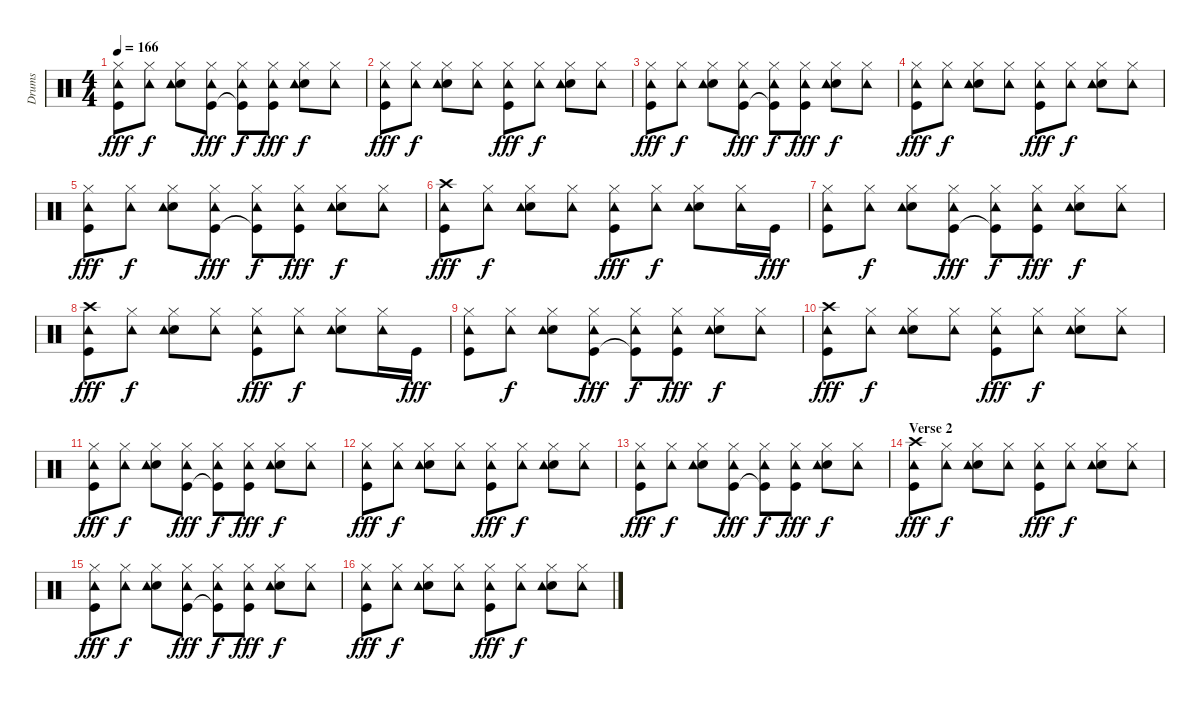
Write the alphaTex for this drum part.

\track ("Drums" "Drums") {instrument percussion}
\staff {score}
\articulation defaults
\ts (4 4)
\tempo 166
\clef neutral
\ks c
("Hi-Hat (closed)" "Tambourine (hit)" "Kick (hit)").8{dy fff} ("Hi-Hat (closed)" "Tambourine (hit)").8{dy f} ("Hi-Hat (closed)" "Snare (hit) 2" "Tambourine (hit)").8 ("Hi-Hat (closed)" "Tambourine (hit)" "Kick (hit)").8{dy fff} ("Hi-Hat (closed)" "Tambourine (hit)" "Kick (hit)"{t}).8{dy f} ("Hi-Hat (closed)" "Tambourine (hit)" "Kick (hit)").8{dy fff} ("Hi-Hat (closed)" "Snare (hit) 2" "Tambourine (hit)").8{dy f} ("Hi-Hat (closed)" "Tambourine (hit)").8 |
("Hi-Hat (closed)" "Tambourine (hit)" "Kick (hit)").8{dy fff} ("Hi-Hat (closed)" "Tambourine (hit)").8{dy f} ("Hi-Hat (closed)" "Snare (hit) 2" "Tambourine (hit)").8 ("Hi-Hat (closed)" "Tambourine (hit)").8 ("Hi-Hat (closed)" "Tambourine (hit)" "Kick (hit)").8{dy fff} ("Hi-Hat (closed)" "Tambourine (hit)").8{dy f} ("Hi-Hat (closed)" "Snare (hit) 2" "Tambourine (hit)").8 ("Hi-Hat (closed)" "Tambourine (hit)").8 |
("Hi-Hat (closed)" "Tambourine (hit)" "Kick (hit)").8{dy fff} ("Hi-Hat (closed)" "Tambourine (hit)").8{dy f} ("Hi-Hat (closed)" "Snare (hit) 2" "Tambourine (hit)").8 ("Hi-Hat (closed)" "Tambourine (hit)" "Kick (hit)").8{dy fff} ("Hi-Hat (closed)" "Tambourine (hit)" "Kick (hit)"{t}).8{dy f} ("Hi-Hat (closed)" "Tambourine (hit)" "Kick (hit)").8{dy fff} ("Hi-Hat (closed)" "Snare (hit) 2" "Tambourine (hit)").8{dy f} ("Hi-Hat (closed)" "Tambourine (hit)").8 |
("Hi-Hat (closed)" "Tambourine (hit)" "Kick (hit)").8{dy fff} ("Hi-Hat (closed)" "Tambourine (hit)").8{dy f} ("Hi-Hat (closed)" "Snare (hit) 2" "Tambourine (hit)").8 ("Hi-Hat (closed)" "Tambourine (hit)").8 ("Hi-Hat (closed)" "Tambourine (hit)" "Kick (hit)").8{dy fff} ("Hi-Hat (closed)" "Tambourine (hit)").8{dy f} ("Hi-Hat (closed)" "Snare (hit) 2" "Tambourine (hit)").8 ("Hi-Hat (closed)" "Tambourine (hit)").8 |
("Hi-Hat (closed)" "Tambourine (hit)" "Kick (hit)").8{dy fff} ("Hi-Hat (closed)" "Tambourine (hit)").8{dy f} ("Hi-Hat (closed)" "Snare (hit) 2" "Tambourine (hit)").8 ("Hi-Hat (closed)" "Tambourine (hit)" "Kick (hit)").8{dy fff} ("Hi-Hat (closed)" "Tambourine (hit)" "Kick (hit)"{t}).8{dy f} ("Hi-Hat (closed)" "Tambourine (hit)" "Kick (hit)").8{dy fff} ("Hi-Hat (closed)" "Snare (hit) 2" "Tambourine (hit)").8{dy f} ("Hi-Hat (closed)" "Tambourine (hit)").8 |
("Crash high (hit)" "Tambourine (hit)" "Kick (hit)").8{dy fff} ("Hi-Hat (closed)" "Tambourine (hit)").8{dy f} ("Hi-Hat (closed)" "Snare (hit) 2" "Tambourine (hit)").8 ("Hi-Hat (closed)" "Tambourine (hit)").8 ("Hi-Hat (closed)" "Tambourine (hit)" "Kick (hit)").8{dy fff} ("Hi-Hat (closed)" "Tambourine (hit)").8{dy f} ("Hi-Hat (closed)" "Snare (hit) 2" "Tambourine (hit)").8 ("Hi-Hat (closed)" "Tambourine (hit)").16 "Kick (hit)".16{dy fff} |
("Hi-Hat (closed)" "Tambourine (hit)" "Kick (hit)").8 ("Hi-Hat (closed)" "Tambourine (hit)").8{dy f} ("Hi-Hat (closed)" "Snare (hit) 2" "Tambourine (hit)").8 ("Hi-Hat (closed)" "Tambourine (hit)" "Kick (hit)").8{dy fff} ("Hi-Hat (closed)" "Tambourine (hit)" "Kick (hit)"{t}).8{dy f} ("Hi-Hat (closed)" "Tambourine (hit)" "Kick (hit)").8{dy fff} ("Hi-Hat (closed)" "Snare (hit) 2" "Tambourine (hit)").8{dy f} ("Hi-Hat (closed)" "Tambourine (hit)").8 |
("Crash high (hit)" "Tambourine (hit)" "Kick (hit)").8{dy fff} ("Hi-Hat (closed)" "Tambourine (hit)").8{dy f} ("Hi-Hat (closed)" "Snare (hit) 2" "Tambourine (hit)").8 ("Hi-Hat (closed)" "Tambourine (hit)").8 ("Hi-Hat (closed)" "Tambourine (hit)" "Kick (hit)").8{dy fff} ("Hi-Hat (closed)" "Tambourine (hit)").8{dy f} ("Hi-Hat (closed)" "Snare (hit) 2" "Tambourine (hit)").8 ("Hi-Hat (closed)" "Tambourine (hit)").16 "Kick (hit)".16{dy fff} |
("Hi-Hat (closed)" "Tambourine (hit)" "Kick (hit)").8 ("Hi-Hat (closed)" "Tambourine (hit)").8{dy f} ("Hi-Hat (closed)" "Snare (hit) 2" "Tambourine (hit)").8 ("Hi-Hat (closed)" "Tambourine (hit)" "Kick (hit)").8{dy fff} ("Hi-Hat (closed)" "Tambourine (hit)" "Kick (hit)"{t}).8{dy f} ("Hi-Hat (closed)" "Tambourine (hit)" "Kick (hit)").8{dy fff} ("Hi-Hat (closed)" "Snare (hit) 2" "Tambourine (hit)").8{dy f} ("Hi-Hat (closed)" "Tambourine (hit)").8 |
("Crash high (hit)" "Tambourine (hit)" "Kick (hit)").8{dy fff} ("Hi-Hat (closed)" "Tambourine (hit)").8{dy f} ("Hi-Hat (closed)" "Snare (hit) 2" "Tambourine (hit)").8 ("Hi-Hat (closed)" "Tambourine (hit)").8 ("Hi-Hat (closed)" "Tambourine (hit)" "Kick (hit)").8{dy fff} ("Hi-Hat (closed)" "Tambourine (hit)").8{dy f} ("Hi-Hat (closed)" "Snare (hit) 2" "Tambourine (hit)").8 ("Hi-Hat (closed)" "Tambourine (hit)").8 |
("Hi-Hat (closed)" "Tambourine (hit)" "Kick (hit)").8{dy fff} ("Hi-Hat (closed)" "Tambourine (hit)").8{dy f} ("Hi-Hat (closed)" "Snare (hit) 2" "Tambourine (hit)").8 ("Hi-Hat (closed)" "Tambourine (hit)" "Kick (hit)").8{dy fff} ("Hi-Hat (closed)" "Tambourine (hit)" "Kick (hit)"{t}).8{dy f} ("Hi-Hat (closed)" "Tambourine (hit)" "Kick (hit)").8{dy fff} ("Hi-Hat (closed)" "Snare (hit) 2" "Tambourine (hit)").8{dy f} ("Hi-Hat (closed)" "Tambourine (hit)").8 |
("Hi-Hat (closed)" "Tambourine (hit)" "Kick (hit)").8{dy fff} ("Hi-Hat (closed)" "Tambourine (hit)").8{dy f} ("Hi-Hat (closed)" "Snare (hit) 2" "Tambourine (hit)").8 ("Hi-Hat (closed)" "Tambourine (hit)").8 ("Hi-Hat (closed)" "Tambourine (hit)" "Kick (hit)").8{dy fff} ("Hi-Hat (closed)" "Tambourine (hit)").8{dy f} ("Hi-Hat (closed)" "Snare (hit) 2" "Tambourine (hit)").8 ("Hi-Hat (closed)" "Tambourine (hit)").8 |
("Hi-Hat (closed)" "Tambourine (hit)" "Kick (hit)").8{dy fff} ("Hi-Hat (closed)" "Tambourine (hit)").8{dy f} ("Hi-Hat (closed)" "Snare (hit) 2" "Tambourine (hit)").8 ("Hi-Hat (closed)" "Tambourine (hit)" "Kick (hit)").8{dy fff} ("Hi-Hat (closed)" "Tambourine (hit)" "Kick (hit)"{t}).8{dy f} ("Hi-Hat (closed)" "Tambourine (hit)" "Kick (hit)").8{dy fff} ("Hi-Hat (closed)" "Snare (hit) 2" "Tambourine (hit)").8{dy f} ("Hi-Hat (closed)" "Tambourine (hit)").8 |
\section ("" "Verse 2")
("Crash high (hit)" "Tambourine (hit)" "Kick (hit)").8{dy fff} ("Hi-Hat (closed)" "Tambourine (hit)").8{dy f} ("Hi-Hat (closed)" "Snare (hit) 2" "Tambourine (hit)").8 ("Hi-Hat (closed)" "Tambourine (hit)").8 ("Hi-Hat (closed)" "Tambourine (hit)" "Kick (hit)").8{dy fff} ("Hi-Hat (closed)" "Tambourine (hit)").8{dy f} ("Hi-Hat (closed)" "Snare (hit) 2" "Tambourine (hit)").8 ("Hi-Hat (closed)" "Tambourine (hit)").8 |
("Hi-Hat (closed)" "Tambourine (hit)" "Kick (hit)").8{dy fff} ("Hi-Hat (closed)" "Tambourine (hit)").8{dy f} ("Hi-Hat (closed)" "Snare (hit) 2" "Tambourine (hit)").8 ("Hi-Hat (closed)" "Tambourine (hit)" "Kick (hit)").8{dy fff} ("Hi-Hat (closed)" "Tambourine (hit)" "Kick (hit)"{t}).8{dy f} ("Hi-Hat (closed)" "Tambourine (hit)" "Kick (hit)").8{dy fff} ("Hi-Hat (closed)" "Snare (hit) 2" "Tambourine (hit)").8{dy f} ("Hi-Hat (closed)" "Tambourine (hit)").8 |
("Hi-Hat (closed)" "Tambourine (hit)" "Kick (hit)").8{dy fff} ("Hi-Hat (closed)" "Tambourine (hit)").8{dy f} ("Hi-Hat (closed)" "Snare (hit) 2" "Tambourine (hit)").8 ("Hi-Hat (closed)" "Tambourine (hit)").8 ("Hi-Hat (closed)" "Tambourine (hit)" "Kick (hit)").8{dy fff} ("Hi-Hat (closed)" "Tambourine (hit)").8{dy f} ("Hi-Hat (closed)" "Snare (hit) 2" "Tambourine (hit)").8 ("Hi-Hat (closed)" "Tambourine (hit)").8
